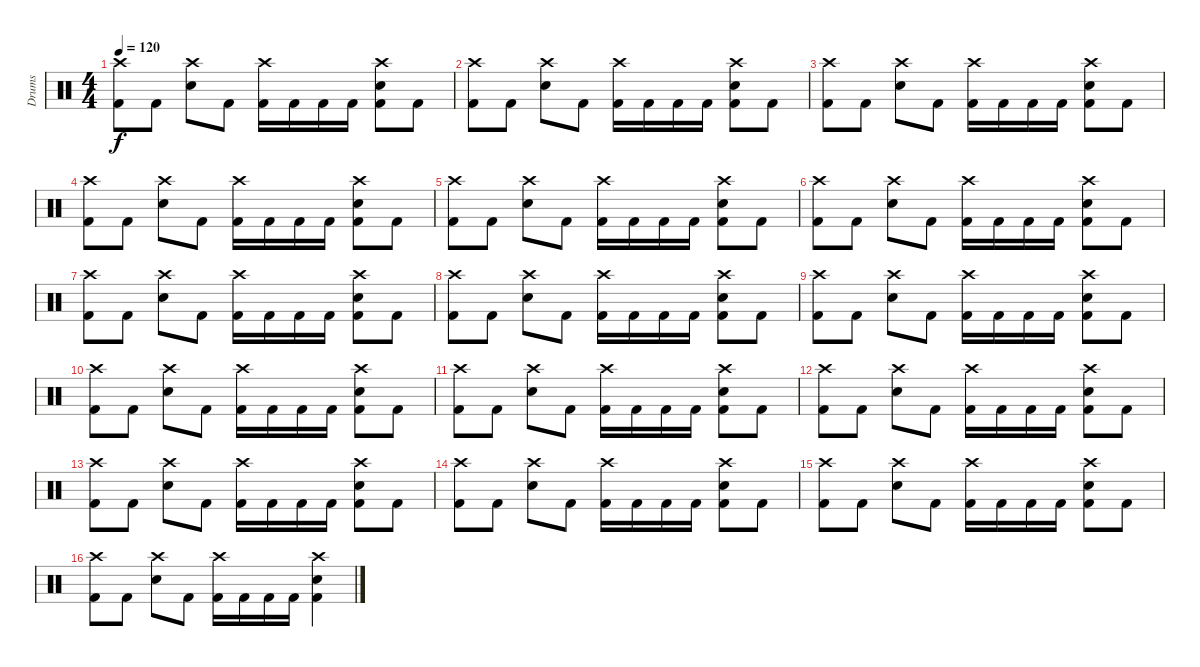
\track ("Drums" "Drums") {instrument percussion}
\staff {score}
\articulation defaults
\ts (4 4)
\tempo 120
\clef neutral
\ks c
("Crash high (hit)" "Kick (hit) 2").8{dy f} "Kick (hit) 2".8 ("Crash high (hit)" "Electric Snare (hit)").8 "Kick (hit) 2".8 ("Crash high (hit)" "Kick (hit) 2").16 "Kick (hit) 2".16 "Kick (hit) 2".16 "Kick (hit) 2".16 ("Crash high (hit)" "Electric Snare (hit)" "Kick (hit) 2").8 "Kick (hit) 2".8 |
("Crash high (hit)" "Kick (hit) 2").8 "Kick (hit) 2".8 ("Crash high (hit)" "Electric Snare (hit)").8 "Kick (hit) 2".8 ("Crash high (hit)" "Kick (hit) 2").16 "Kick (hit) 2".16 "Kick (hit) 2".16 "Kick (hit) 2".16 ("Crash high (hit)" "Electric Snare (hit)" "Kick (hit) 2").8 "Kick (hit) 2".8 |
("Crash high (hit)" "Kick (hit) 2").8 "Kick (hit) 2".8 ("Crash high (hit)" "Electric Snare (hit)").8 "Kick (hit) 2".8 ("Crash high (hit)" "Kick (hit) 2").16 "Kick (hit) 2".16 "Kick (hit) 2".16 "Kick (hit) 2".16 ("Crash high (hit)" "Electric Snare (hit)" "Kick (hit) 2").8 "Kick (hit) 2".8 |
("Crash high (hit)" "Kick (hit) 2").8 "Kick (hit) 2".8 ("Crash high (hit)" "Electric Snare (hit)").8 "Kick (hit) 2".8 ("Crash high (hit)" "Kick (hit) 2").16 "Kick (hit) 2".16 "Kick (hit) 2".16 "Kick (hit) 2".16 ("Crash high (hit)" "Electric Snare (hit)" "Kick (hit) 2").8 "Kick (hit) 2".8 |
("Crash high (hit)" "Kick (hit) 2").8 "Kick (hit) 2".8 ("Crash high (hit)" "Electric Snare (hit)").8 "Kick (hit) 2".8 ("Crash high (hit)" "Kick (hit) 2").16 "Kick (hit) 2".16 "Kick (hit) 2".16 "Kick (hit) 2".16 ("Crash high (hit)" "Electric Snare (hit)" "Kick (hit) 2").8 "Kick (hit) 2".8 |
("Crash high (hit)" "Kick (hit) 2").8 "Kick (hit) 2".8 ("Crash high (hit)" "Electric Snare (hit)").8 "Kick (hit) 2".8 ("Crash high (hit)" "Kick (hit) 2").16 "Kick (hit) 2".16 "Kick (hit) 2".16 "Kick (hit) 2".16 ("Crash high (hit)" "Electric Snare (hit)" "Kick (hit) 2").8 "Kick (hit) 2".8 |
("Crash high (hit)" "Kick (hit) 2").8 "Kick (hit) 2".8 ("Crash high (hit)" "Electric Snare (hit)").8 "Kick (hit) 2".8 ("Crash high (hit)" "Kick (hit) 2").16 "Kick (hit) 2".16 "Kick (hit) 2".16 "Kick (hit) 2".16 ("Crash high (hit)" "Electric Snare (hit)" "Kick (hit) 2").8 "Kick (hit) 2".8 |
("Crash high (hit)" "Kick (hit) 2").8 "Kick (hit) 2".8 ("Crash high (hit)" "Electric Snare (hit)").8 "Kick (hit) 2".8 ("Crash high (hit)" "Kick (hit) 2").16 "Kick (hit) 2".16 "Kick (hit) 2".16 "Kick (hit) 2".16 ("Crash high (hit)" "Electric Snare (hit)" "Kick (hit) 2").8 "Kick (hit) 2".8 |
("Crash high (hit)" "Kick (hit) 2").8 "Kick (hit) 2".8 ("Crash high (hit)" "Electric Snare (hit)").8 "Kick (hit) 2".8 ("Crash high (hit)" "Kick (hit) 2").16 "Kick (hit) 2".16 "Kick (hit) 2".16 "Kick (hit) 2".16 ("Crash high (hit)" "Electric Snare (hit)" "Kick (hit) 2").8 "Kick (hit) 2".8 |
("Crash high (hit)" "Kick (hit) 2").8 "Kick (hit) 2".8 ("Crash high (hit)" "Electric Snare (hit)").8 "Kick (hit) 2".8 ("Crash high (hit)" "Kick (hit) 2").16 "Kick (hit) 2".16 "Kick (hit) 2".16 "Kick (hit) 2".16 ("Crash high (hit)" "Electric Snare (hit)" "Kick (hit) 2").8 "Kick (hit) 2".8 |
("Crash high (hit)" "Kick (hit) 2").8 "Kick (hit) 2".8 ("Crash high (hit)" "Electric Snare (hit)").8 "Kick (hit) 2".8 ("Crash high (hit)" "Kick (hit) 2").16 "Kick (hit) 2".16 "Kick (hit) 2".16 "Kick (hit) 2".16 ("Crash high (hit)" "Electric Snare (hit)" "Kick (hit) 2").8 "Kick (hit) 2".8 |
("Crash high (hit)" "Kick (hit) 2").8 "Kick (hit) 2".8 ("Crash high (hit)" "Electric Snare (hit)").8 "Kick (hit) 2".8 ("Crash high (hit)" "Kick (hit) 2").16 "Kick (hit) 2".16 "Kick (hit) 2".16 "Kick (hit) 2".16 ("Crash high (hit)" "Electric Snare (hit)" "Kick (hit) 2").8 "Kick (hit) 2".8 |
("Crash high (hit)" "Kick (hit) 2").8 "Kick (hit) 2".8 ("Crash high (hit)" "Electric Snare (hit)").8 "Kick (hit) 2".8 ("Crash high (hit)" "Kick (hit) 2").16 "Kick (hit) 2".16 "Kick (hit) 2".16 "Kick (hit) 2".16 ("Crash high (hit)" "Electric Snare (hit)" "Kick (hit) 2").8 "Kick (hit) 2".8 |
("Crash high (hit)" "Kick (hit) 2").8 "Kick (hit) 2".8 ("Crash high (hit)" "Electric Snare (hit)").8 "Kick (hit) 2".8 ("Crash high (hit)" "Kick (hit) 2").16 "Kick (hit) 2".16 "Kick (hit) 2".16 "Kick (hit) 2".16 ("Crash high (hit)" "Electric Snare (hit)" "Kick (hit) 2").8 "Kick (hit) 2".8 |
("Crash high (hit)" "Kick (hit) 2").8 "Kick (hit) 2".8 ("Crash high (hit)" "Electric Snare (hit)").8 "Kick (hit) 2".8 ("Crash high (hit)" "Kick (hit) 2").16 "Kick (hit) 2".16 "Kick (hit) 2".16 "Kick (hit) 2".16 ("Crash high (hit)" "Electric Snare (hit)" "Kick (hit) 2").8 "Kick (hit) 2".8 |
("Crash high (hit)" "Kick (hit) 2").8 "Kick (hit) 2".8 ("Crash high (hit)" "Electric Snare (hit)").8 "Kick (hit) 2".8 ("Crash high (hit)" "Kick (hit) 2").16 "Kick (hit) 2".16 "Kick (hit) 2".16 "Kick (hit) 2".16 ("Crash high (hit)" "Electric Snare (hit)" "Kick (hit) 2").4
